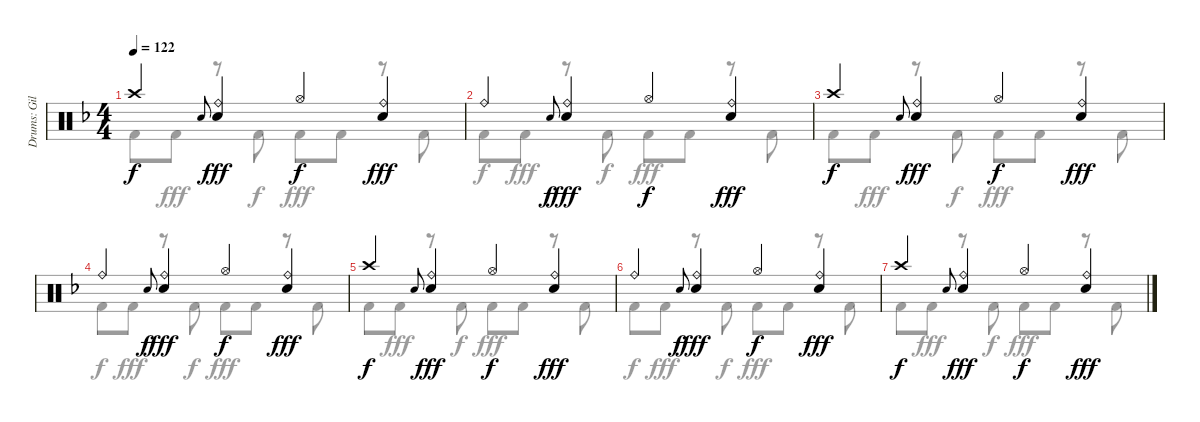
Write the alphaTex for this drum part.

\track ("Drums: Gil" "Drums: Gil") {instrument percussion}
\staff {score}
\articulation defaults
\voice
\ts (4 4)
\tempo 122
\clef neutral
\ks f "Crash high (hit)".4{dy f} "Electric Snare (hit)".8{gr onbeat}
("Ride (bell)" "Snare (hit) 2").4{dy fff} "Hi-Hat (open)".4{dy f} ("Ride (bell)" "Snare (hit) 2").4{dy fff} |
"Ride (bell)".4 "Electric Snare (hit)".8{gr onbeat dy f} ("Ride (bell)" "Snare (hit) 2").4{dy fff} "Hi-Hat (open)".4{dy f} ("Ride (bell)" "Snare (hit) 2").4{dy fff} |
"Crash high (hit)".4{dy f} "Electric Snare (hit)".8{gr onbeat} ("Ride (bell)" "Snare (hit) 2").4{dy fff} "Hi-Hat (open)".4{dy f} ("Ride (bell)" "Snare (hit) 2").4{dy fff} |
"Ride (bell)".4 "Electric Snare (hit)".8{gr onbeat dy f} ("Ride (bell)" "Snare (hit) 2").4{dy fff} "Hi-Hat (open)".4{dy f} ("Ride (bell)" "Snare (hit) 2").4{dy fff} |
"Crash high (hit)".4{dy f} "Electric Snare (hit)".8{gr onbeat} ("Ride (bell)" "Snare (hit) 2").4{dy fff} "Hi-Hat (open)".4{dy f} ("Ride (bell)" "Snare (hit) 2").4{dy fff} |
"Ride (bell)".4 "Electric Snare (hit)".8{gr onbeat dy f} ("Ride (bell)" "Snare (hit) 2").4{dy fff} "Hi-Hat (open)".4{dy f} ("Ride (bell)" "Snare (hit) 2").4{dy fff} |
"Crash high (hit)".4{dy f} "Electric Snare (hit)".8{gr onbeat} ("Ride (bell)" "Snare (hit) 2").4{dy fff} "Hi-Hat (open)".4{dy f} ("Ride (bell)" "Snare (hit) 2").4{dy fff}
\voice
\clef neutral
\ottava regular
\simile none
\ks f "Kick (hit) 2".8{dy f} "Kick (hit) 2".8{dy fff}
r.8 "Kick (hit) 2".8{dy f} "Kick (hit) 2".8{dy fff} "Kick (hit) 2".8 r.8 "Kick (hit) 2".8 |
"Kick (hit) 2".8{dy f} "Kick (hit) 2".8{dy fff} r.8 "Kick (hit) 2".8{dy f} "Kick (hit) 2".8{dy fff} "Kick (hit) 2".8 r.8 "Kick (hit) 2".8 |
"Kick (hit) 2".8{dy f} "Kick (hit) 2".8{dy fff} r.8 "Kick (hit) 2".8{dy f} "Kick (hit) 2".8{dy fff} "Kick (hit) 2".8 r.8 "Kick (hit) 2".8 |
"Kick (hit) 2".8{dy f} "Kick (hit) 2".8{dy fff} r.8 "Kick (hit) 2".8{dy f} "Kick (hit) 2".8{dy fff} "Kick (hit) 2".8 r.8 "Kick (hit) 2".8 |
"Kick (hit) 2".8{dy f} "Kick (hit) 2".8{dy fff} r.8 "Kick (hit) 2".8{dy f} "Kick (hit) 2".8{dy fff} "Kick (hit) 2".8 r.8 "Kick (hit) 2".8 |
"Kick (hit) 2".8{dy f} "Kick (hit) 2".8{dy fff} r.8 "Kick (hit) 2".8{dy f} "Kick (hit) 2".8{dy fff} "Kick (hit) 2".8 r.8 "Kick (hit) 2".8 |
"Kick (hit) 2".8{dy f} "Kick (hit) 2".8{dy fff} r.8 "Kick (hit) 2".8{dy f} "Kick (hit) 2".8{dy fff} "Kick (hit) 2".8 r.8 "Kick (hit) 2".8
